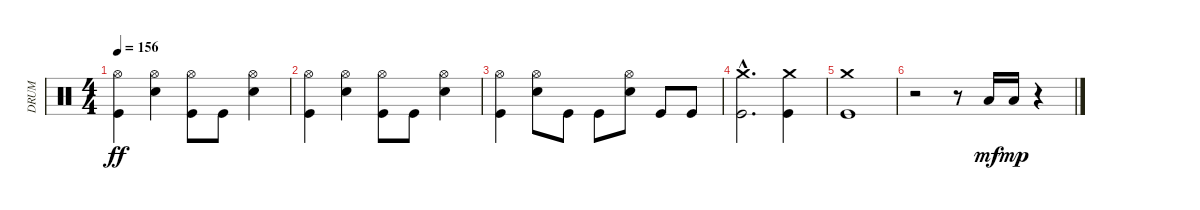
\track ("DRUM" "DRUM") {instrument percussion}
\staff {score}
\articulation defaults
\ts (4 4)
\tempo 156
\clef neutral
\ks c
("Hi-Hat (open)" "Kick (hit)").4{dy ff} ("Hi-Hat (open)" "Snare (hit) 2").4 ("Hi-Hat (open)" "Kick (hit)").8 "Kick (hit)".8 ("Hi-Hat (open)" "Snare (hit) 2").4 |
("Hi-Hat (open)" "Kick (hit)").4 ("Hi-Hat (open)" "Snare (hit) 2").4 ("Hi-Hat (open)" "Kick (hit)").8 "Kick (hit)".8 ("Hi-Hat (open)" "Snare (hit) 2").4 |
("Hi-Hat (open)" "Kick (hit)").4 ("Hi-Hat (open)" "Snare (hit) 2").8 "Kick (hit)".8 "Kick (hit)".8 ("Hi-Hat (open)" "Snare (hit) 2").8 "Kick (hit)".8 "Kick (hit)".8 |
("Crash medium (hit)"{hac} "Kick (hit)"{hac}).2{d} ("Crash medium (hit)" "Kick (hit)").4 |
("Crash medium (hit)" "Kick (hit)").1 |
r.2 r.8 "Low Floor Tom (hit)".16{dy mf} "Low Floor Tom (hit)".16{dy mp} r.4
